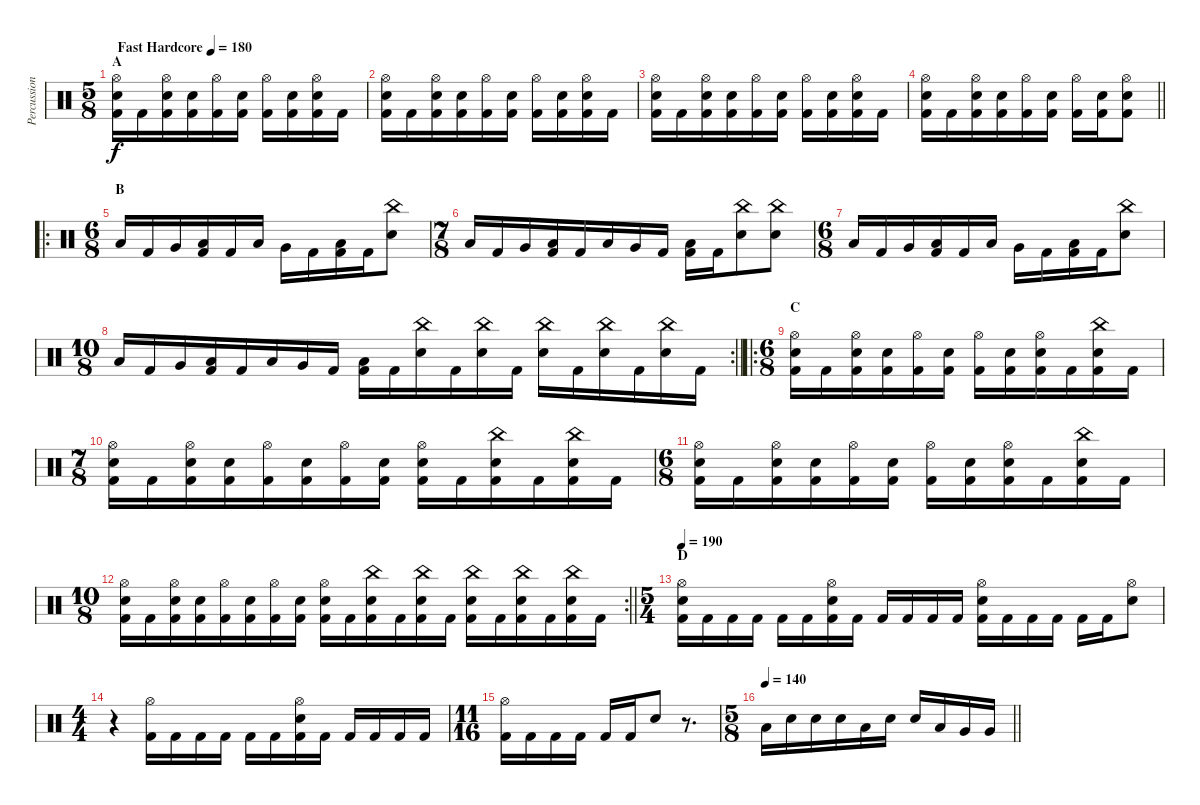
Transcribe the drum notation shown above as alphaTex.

\track ("Percussion" "Percussion") {instrument percussion}
\staff {score}
\articulation defaults
\ts (5 8)
\section ("" "A")
\tempo (180 "Fast Hardcore")
\clef neutral
\ks c
("Hi-Hat (open)" "Electric Snare (hit)" "Kick (hit) 2").16{dy f} "Kick (hit) 2".16 ("Hi-Hat (open)" "Electric Snare (hit)" "Kick (hit) 2").16 ("Electric Snare (hit)" "Kick (hit) 2").16 ("Hi-Hat (open)" "Kick (hit) 2").16 ("Electric Snare (hit)" "Kick (hit) 2").16 ("Hi-Hat (open)" "Kick (hit) 2").16 ("Electric Snare (hit)" "Kick (hit) 2").16 ("Hi-Hat (open)" "Electric Snare (hit)" "Kick (hit) 2").16 "Kick (hit) 2".16 |
("Hi-Hat (open)" "Electric Snare (hit)" "Kick (hit) 2").16 "Kick (hit) 2".16 ("Hi-Hat (open)" "Electric Snare (hit)" "Kick (hit) 2").16 ("Electric Snare (hit)" "Kick (hit) 2").16 ("Hi-Hat (open)" "Kick (hit) 2").16 ("Electric Snare (hit)" "Kick (hit) 2").16 ("Hi-Hat (open)" "Kick (hit) 2").16 ("Electric Snare (hit)" "Kick (hit) 2").16 ("Hi-Hat (open)" "Electric Snare (hit)" "Kick (hit) 2").16 "Kick (hit) 2".16 |
("Hi-Hat (open)" "Electric Snare (hit)" "Kick (hit) 2").16 "Kick (hit) 2".16 ("Hi-Hat (open)" "Electric Snare (hit)" "Kick (hit) 2").16 ("Electric Snare (hit)" "Kick (hit) 2").16 ("Hi-Hat (open)" "Kick (hit) 2").16 ("Electric Snare (hit)" "Kick (hit) 2").16 ("Hi-Hat (open)" "Kick (hit) 2").16 ("Electric Snare (hit)" "Kick (hit) 2").16 ("Hi-Hat (open)" "Electric Snare (hit)" "Kick (hit) 2").16 "Kick (hit) 2".16 |
\barLineRight lightlight
("Hi-Hat (open)" "Electric Snare (hit)" "Kick (hit) 2").16 "Kick (hit) 2".16 ("Hi-Hat (open)" "Electric Snare (hit)" "Kick (hit) 2").16 ("Electric Snare (hit)" "Kick (hit) 2").16 ("Hi-Hat (open)" "Kick (hit) 2").16 ("Electric Snare (hit)" "Kick (hit) 2").16 ("Hi-Hat (open)" "Kick (hit) 2").16 ("Electric Snare (hit)" "Kick (hit) 2").16 ("Hi-Hat (open)" "Electric Snare (hit)" "Kick (hit) 2").8 |
\ro
\ts (6 8)
\section ("" "B")
"Low Tom (hit)".16 "Kick (hit) 2".16 "Very Low Tom (hit)".16 ("Low Floor Tom (hit)" "Kick (hit) 2").16 "Kick (hit) 2".16 "Low Tom (hit)".16 "Very Low Tom (hit)".16 "Kick (hit) 2".16 ("Low Floor Tom (hit)" "Kick (hit) 2").16 "Kick (hit) 2".16 ("China (hit)" "Electric Snare (hit)").8 |
\ts (7 8)
"Low Tom (hit)".16 "Kick (hit) 2".16 "Very Low Tom (hit)".16 ("Low Floor Tom (hit)" "Kick (hit) 2").16 "Kick (hit) 2".16 "Low Tom (hit)".16 "Very Low Tom (hit)".16 "Kick (hit) 2".16 ("Low Floor Tom (hit)" "Kick (hit) 2").16 "Kick (hit) 2".16 ("China (hit)" "Electric Snare (hit)").8 ("China (hit)" "Electric Snare (hit)").8 |
\ts (6 8)
"Low Tom (hit)".16 "Kick (hit) 2".16 "Very Low Tom (hit)".16 ("Low Floor Tom (hit)" "Kick (hit) 2").16 "Kick (hit) 2".16 "Low Tom (hit)".16 "Very Low Tom (hit)".16 "Kick (hit) 2".16 ("Low Floor Tom (hit)" "Kick (hit) 2").16 "Kick (hit) 2".16 ("China (hit)" "Electric Snare (hit)").8 |
\rc 2
\ts (10 8)
\barLineRight lightlight "Low Tom (hit)".16 "Kick (hit) 2".16 "Very Low Tom (hit)".16
("Low Floor Tom (hit)" "Kick (hit) 2").16 "Kick (hit) 2".16 "Low Tom (hit)".16 "Very Low Tom (hit)".16 "Kick (hit) 2".16 ("Low Floor Tom (hit)" "Kick (hit) 2").16 "Kick (hit) 2".16 ("China (hit)" "Electric Snare (hit)").16 "Kick (hit) 2".16 ("China (hit)" "Electric Snare (hit)").16 "Kick (hit) 2".16 ("China (hit)" "Electric Snare (hit)").16 "Kick (hit) 2".16 ("China (hit)" "Electric Snare (hit)").16 "Kick (hit) 2".16 ("China (hit)" "Electric Snare (hit)").16 "Kick (hit) 2".16 |
\ro
\ts (6 8)
\section ("" "C")
("Hi-Hat (open)" "Electric Snare (hit)" "Kick (hit) 2").16 "Kick (hit) 2".16 ("Hi-Hat (open)" "Electric Snare (hit)" "Kick (hit) 2").16 ("Electric Snare (hit)" "Kick (hit) 2").16 ("Hi-Hat (open)" "Kick (hit) 2").16 ("Electric Snare (hit)" "Kick (hit) 2").16 ("Hi-Hat (open)" "Kick (hit) 2").16 ("Electric Snare (hit)" "Kick (hit) 2").16 ("Hi-Hat (open)" "Electric Snare (hit)" "Kick (hit) 2").16 "Kick (hit) 2".16 ("China (hit)" "Electric Snare (hit)" "Kick (hit) 2").16 "Kick (hit) 2".16 |
\ts (7 8)
("Hi-Hat (open)" "Electric Snare (hit)" "Kick (hit) 2").16 "Kick (hit) 2".16 ("Hi-Hat (open)" "Electric Snare (hit)" "Kick (hit) 2").16 ("Electric Snare (hit)" "Kick (hit) 2").16 ("Hi-Hat (open)" "Kick (hit) 2").16 ("Electric Snare (hit)" "Kick (hit) 2").16 ("Hi-Hat (open)" "Kick (hit) 2").16 ("Electric Snare (hit)" "Kick (hit) 2").16 ("Hi-Hat (open)" "Electric Snare (hit)" "Kick (hit) 2").16 "Kick (hit) 2".16 ("China (hit)" "Electric Snare (hit)" "Kick (hit) 2").16 "Kick (hit) 2".16 ("China (hit)" "Electric Snare (hit)" "Kick (hit) 2").16 "Kick (hit) 2".16 |
\ts (6 8)
("Hi-Hat (open)" "Electric Snare (hit)" "Kick (hit) 2").16 "Kick (hit) 2".16 ("Hi-Hat (open)" "Electric Snare (hit)" "Kick (hit) 2").16 ("Electric Snare (hit)" "Kick (hit) 2").16 ("Hi-Hat (open)" "Kick (hit) 2").16 ("Electric Snare (hit)" "Kick (hit) 2").16 ("Hi-Hat (open)" "Kick (hit) 2").16 ("Electric Snare (hit)" "Kick (hit) 2").16 ("Hi-Hat (open)" "Electric Snare (hit)" "Kick (hit) 2").16 "Kick (hit) 2".16 ("China (hit)" "Electric Snare (hit)" "Kick (hit) 2").16 "Kick (hit) 2".16 |
\rc 2
\ts (10 8)
\barLineRight lightlight
("Hi-Hat (open)" "Electric Snare (hit)" "Kick (hit) 2").16 "Kick (hit) 2".16 ("Hi-Hat (open)" "Electric Snare (hit)" "Kick (hit) 2").16 ("Electric Snare (hit)" "Kick (hit) 2").16 ("Hi-Hat (open)" "Kick (hit) 2").16 ("Electric Snare (hit)" "Kick (hit) 2").16 ("Hi-Hat (open)" "Kick (hit) 2").16 ("Electric Snare (hit)" "Kick (hit) 2").16 ("Hi-Hat (open)" "Electric Snare (hit)" "Kick (hit) 2").16 "Kick (hit) 2".16 ("China (hit)" "Electric Snare (hit)" "Kick (hit) 2").16 "Kick (hit) 2".16 ("China (hit)" "Electric Snare (hit)" "Kick (hit) 2").16 "Kick (hit) 2".16 ("China (hit)" "Electric Snare (hit)" "Kick (hit) 2").16 "Kick (hit) 2".16 ("China (hit)" "Electric Snare (hit)" "Kick (hit) 2").16 "Kick (hit) 2".16 ("China (hit)" "Electric Snare (hit)" "Kick (hit) 2").16 "Kick (hit) 2".16 |
\ts (5 4)
\section ("" "D")
\tempo 190
("Hi-Hat (open)" "Electric Snare (hit)" "Kick (hit) 2").16 "Kick (hit) 2".16 "Kick (hit) 2".16 "Kick (hit) 2".16 "Kick (hit) 2".16 "Kick (hit) 2".16 ("Hi-Hat (open)" "Electric Snare (hit)" "Kick (hit) 2").16 "Kick (hit) 2".16 "Kick (hit) 2".16 "Kick (hit) 2".16 "Kick (hit) 2".16 "Kick (hit) 2".16 ("Hi-Hat (open)" "Electric Snare (hit)" "Kick (hit) 2").16 "Kick (hit) 2".16 "Kick (hit) 2".16 "Kick (hit) 2".16 "Kick (hit) 2".16 "Kick (hit) 2".16 ("Hi-Hat (open)" "Electric Snare (hit)").8 |
\ts (4 4)
r.4 ("Hi-Hat (open)" "Kick (hit) 2").16 "Kick (hit) 2".16 "Kick (hit) 2".16 "Kick (hit) 2".16 "Kick (hit) 2".16 "Kick (hit) 2".16 ("Hi-Hat (open)" "Electric Snare (hit)" "Kick (hit) 2").16 "Kick (hit) 2".16 "Kick (hit) 2".16 "Kick (hit) 2".16 "Kick (hit) 2".16 "Kick (hit) 2".16 |
\ts (11 16)
("Hi-Hat (open)" "Kick (hit) 2").16 "Kick (hit) 2".16 "Kick (hit) 2".16 "Kick (hit) 2".16 "Kick (hit) 2".16 "Kick (hit) 2".16 "Electric Snare (hit)".8 r.8{d} |
\ts (5 8)
\tempo 140
\barLineRight lightlight "Low Tom (hit)".16 "Electric Snare (hit)".16 "Electric Snare (hit)".16 "Electric Snare (hit)".16 "Low Tom (hit)".16 "Electric Snare (hit)".16 "Electric Snare (hit)".16 "Low Tom (hit)".16 "Very Low Tom (hit)".16 "Very Low Tom (hit)".16
